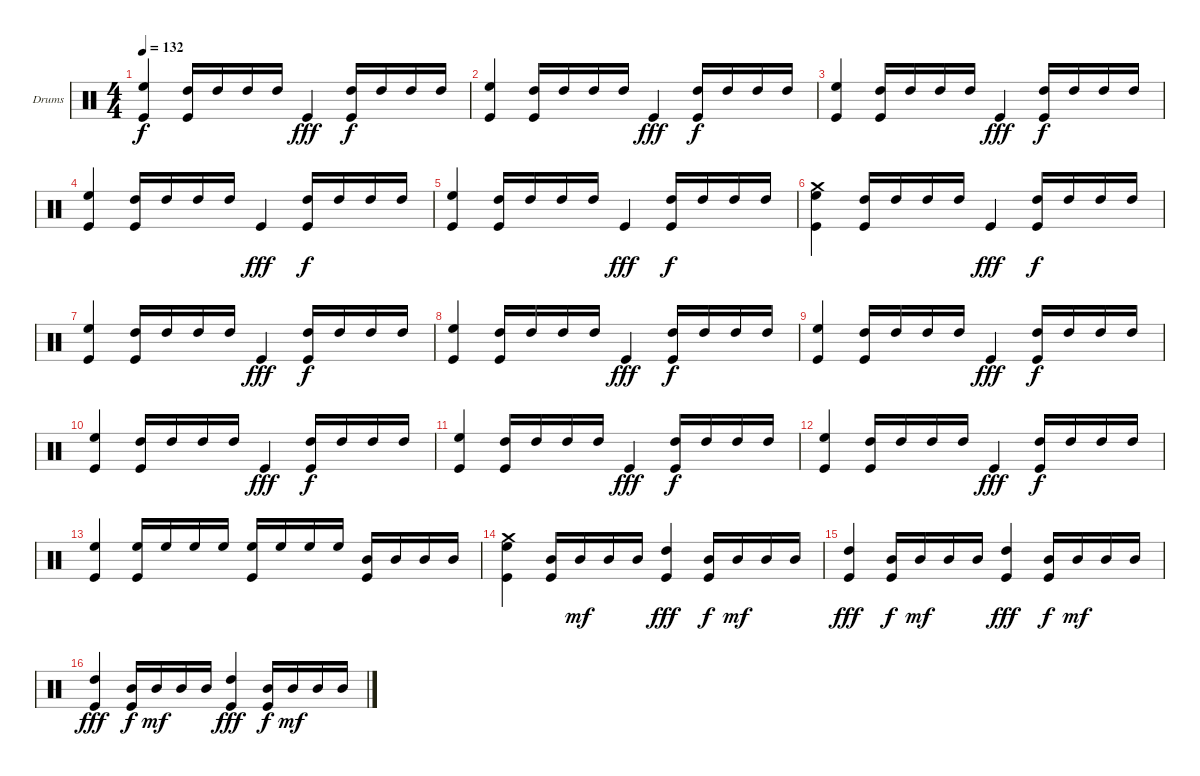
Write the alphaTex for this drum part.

\bracketExtendMode groupsimilarinstruments
\firstSystemTrackNameOrientation horizontal
\otherSystemsTrackNameOrientation horizontal
\track ("Larry" "Drums") {instrument percussion}
\staff {score}
\articulation defaults
\ts (4 4)
\tempo 132
\clef neutral
\ks c
("High Floor Tom (hit)" "Kick (hit)").4{dy f} ("High Tom (hit)" "Kick (hit)").16 "High Tom (hit)".16 "High Tom (hit)".16 "High Tom (hit)".16 "Kick (hit)".4{dy fff} ("High Tom (hit)" "Kick (hit)").16{dy f} "High Tom (hit)".16 "High Tom (hit)".16 "High Tom (hit)".16 |
("High Floor Tom (hit)" "Kick (hit)").4 ("High Tom (hit)" "Kick (hit)").16 "High Tom (hit)".16 "High Tom (hit)".16 "High Tom (hit)".16 "Kick (hit)".4{dy fff} ("High Tom (hit)" "Kick (hit)").16{dy f} "High Tom (hit)".16 "High Tom (hit)".16 "High Tom (hit)".16 |
("High Floor Tom (hit)" "Kick (hit)").4 ("High Tom (hit)" "Kick (hit)").16 "High Tom (hit)".16 "High Tom (hit)".16 "High Tom (hit)".16 "Kick (hit)".4{dy fff} ("High Tom (hit)" "Kick (hit)").16{dy f} "High Tom (hit)".16 "High Tom (hit)".16 "High Tom (hit)".16 |
("High Floor Tom (hit)" "Kick (hit)").4 ("High Tom (hit)" "Kick (hit)").16 "High Tom (hit)".16 "High Tom (hit)".16 "High Tom (hit)".16 "Kick (hit)".4{dy fff} ("High Tom (hit)" "Kick (hit)").16{dy f} "High Tom (hit)".16 "High Tom (hit)".16 "High Tom (hit)".16 |
("High Floor Tom (hit)" "Kick (hit)").4 ("High Tom (hit)" "Kick (hit)").16 "High Tom (hit)".16 "High Tom (hit)".16 "High Tom (hit)".16 "Kick (hit)".4{dy fff} ("High Tom (hit)" "Kick (hit)").16{dy f} "High Tom (hit)".16 "High Tom (hit)".16 "High Tom (hit)".16 |
("Crash medium (hit)" "High Floor Tom (hit)" "Kick (hit)").4 ("High Tom (hit)" "Kick (hit)").16 "High Tom (hit)".16 "High Tom (hit)".16 "High Tom (hit)".16 "Kick (hit)".4{dy fff} ("High Tom (hit)" "Kick (hit)").16{dy f} "High Tom (hit)".16 "High Tom (hit)".16 "High Tom (hit)".16 |
("High Floor Tom (hit)" "Kick (hit)").4 ("High Tom (hit)" "Kick (hit)").16 "High Tom (hit)".16 "High Tom (hit)".16 "High Tom (hit)".16 "Kick (hit)".4{dy fff} ("High Tom (hit)" "Kick (hit)").16{dy f} "High Tom (hit)".16 "High Tom (hit)".16 "High Tom (hit)".16 |
("High Floor Tom (hit)" "Kick (hit)").4 ("High Tom (hit)" "Kick (hit)").16 "High Tom (hit)".16 "High Tom (hit)".16 "High Tom (hit)".16 "Kick (hit)".4{dy fff} ("High Tom (hit)" "Kick (hit)").16{dy f} "High Tom (hit)".16 "High Tom (hit)".16 "High Tom (hit)".16 |
("High Floor Tom (hit)" "Kick (hit)").4 ("High Tom (hit)" "Kick (hit)").16 "High Tom (hit)".16 "High Tom (hit)".16 "High Tom (hit)".16 "Kick (hit)".4{dy fff} ("High Tom (hit)" "Kick (hit)").16{dy f} "High Tom (hit)".16 "High Tom (hit)".16 "High Tom (hit)".16 |
("High Floor Tom (hit)" "Kick (hit)").4 ("High Tom (hit)" "Kick (hit)").16 "High Tom (hit)".16 "High Tom (hit)".16 "High Tom (hit)".16 "Kick (hit)".4{dy fff} ("High Tom (hit)" "Kick (hit)").16{dy f} "High Tom (hit)".16 "High Tom (hit)".16 "High Tom (hit)".16 |
("High Floor Tom (hit)" "Kick (hit)").4 ("High Tom (hit)" "Kick (hit)").16 "High Tom (hit)".16 "High Tom (hit)".16 "High Tom (hit)".16 "Kick (hit)".4{dy fff} ("High Tom (hit)" "Kick (hit)").16{dy f} "High Tom (hit)".16 "High Tom (hit)".16 "High Tom (hit)".16 |
("High Floor Tom (hit)" "Kick (hit)").4 ("High Tom (hit)" "Kick (hit)").16 "High Tom (hit)".16 "High Tom (hit)".16 "High Tom (hit)".16 "Kick (hit)".4{dy fff} ("High Tom (hit)" "Kick (hit)").16{dy f} "High Tom (hit)".16 "High Tom (hit)".16 "High Tom (hit)".16 |
("High Floor Tom (hit)" "Kick (hit)").4 ("High Floor Tom (hit)" "Kick (hit)").16 "High Floor Tom (hit)".16 "High Floor Tom (hit)".16 "High Floor Tom (hit)".16 ("High Floor Tom (hit)" "Kick (hit)").16 "High Floor Tom (hit)".16 "High Floor Tom (hit)".16 "High Floor Tom (hit)".16 ("Mid Tom (hit)" "Kick (hit)").16 "Mid Tom (hit)".16 "Mid Tom (hit)".16 "Mid Tom (hit)".16 |
("Crash medium (hit)" "High Floor Tom (hit)" "Kick (hit)").4 ("Mid Tom (hit)" "Kick (hit)").16 "Mid Tom (hit)".16{dy mf} "Mid Tom (hit)".16 "Mid Tom (hit)".16 ("High Tom (hit)" "Kick (hit)").4{dy fff} ("Mid Tom (hit)" "Kick (hit)").16{dy f} "Mid Tom (hit)".16{dy mf} "Mid Tom (hit)".16 "Mid Tom (hit)".16 |
("High Tom (hit)" "Kick (hit)").4{dy fff} ("Mid Tom (hit)" "Kick (hit)").16{dy f} "Mid Tom (hit)".16{dy mf} "Mid Tom (hit)".16 "Mid Tom (hit)".16 ("High Tom (hit)" "Kick (hit)").4{dy fff} ("Mid Tom (hit)" "Kick (hit)").16{dy f} "Mid Tom (hit)".16{dy mf} "Mid Tom (hit)".16 "Mid Tom (hit)".16 |
("High Tom (hit)" "Kick (hit)").4{dy fff} ("Mid Tom (hit)" "Kick (hit)").16{dy f} "Mid Tom (hit)".16{dy mf} "Mid Tom (hit)".16 "Mid Tom (hit)".16 ("High Tom (hit)" "Kick (hit)").4{dy fff} ("Mid Tom (hit)" "Kick (hit)").16{dy f} "Mid Tom (hit)".16{dy mf} "Mid Tom (hit)".16 "Mid Tom (hit)".16
